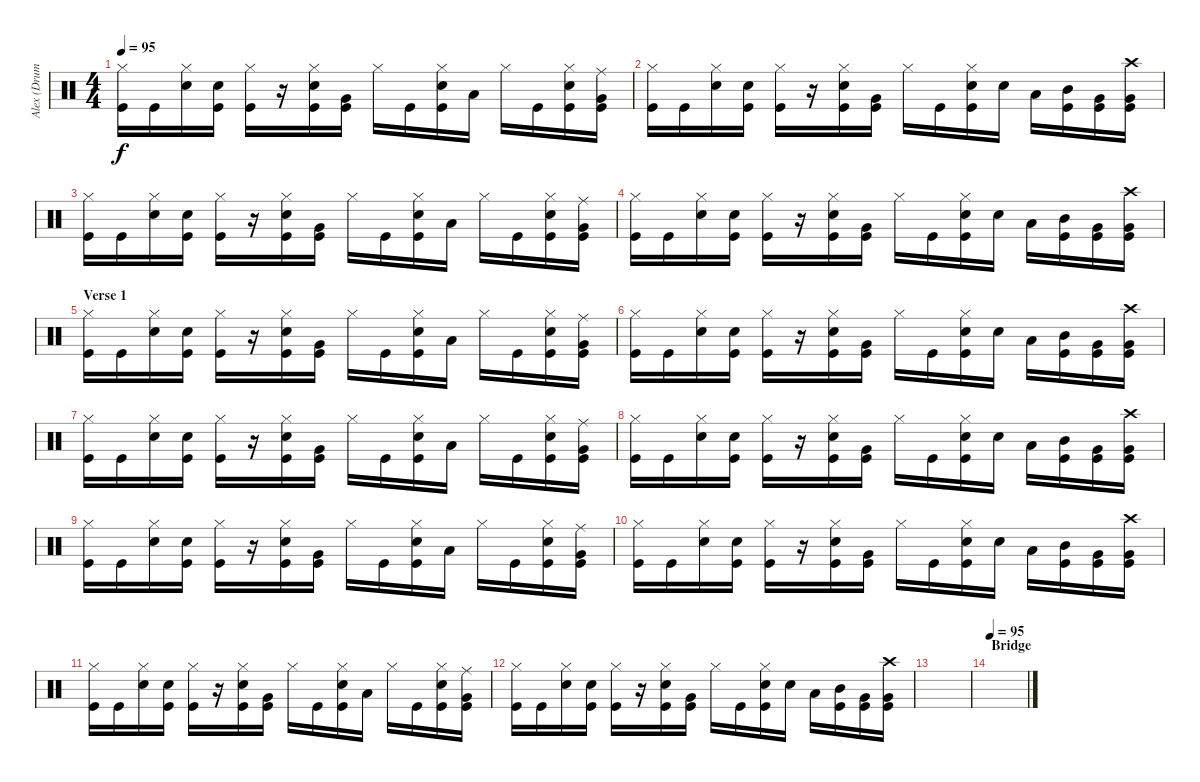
\track ("Alex (Drums)" "Alex (Drum") {instrument percussion}
\staff {score}
\articulation defaults
\ts (4 4)
\tempo 95
\clef neutral
\ks c
("Hi-Hat (closed)" "Kick (hit)").16{dy f} "Kick (hit)".16 ("Hi-Hat (closed)" "Electric Snare (hit)").16 ("Electric Snare (hit)" "Kick (hit)").16 ("Hi-Hat (closed)" "Kick (hit)").16 r.16 ("Hi-Hat (closed)" "Electric Snare (hit)" "Kick (hit)").16 ("Very Low Tom (hit)" "Kick (hit)").16 "Hi-Hat (closed)".16 "Kick (hit)".16 ("Hi-Hat (closed)" "Electric Snare (hit)" "Kick (hit)").16 "Low Tom (hit)".16 "Hi-Hat (closed)".16 "Kick (hit)".16 ("Hi-Hat (closed)" "Electric Snare (hit)" "Kick (hit)").16 ("Ride (middle)" "Very Low Tom (hit)" "Kick (hit)").16 |
("Hi-Hat (closed)" "Kick (hit)").16 "Kick (hit)".16 ("Hi-Hat (closed)" "Electric Snare (hit)").16 ("Electric Snare (hit)" "Kick (hit)").16 ("Hi-Hat (closed)" "Kick (hit)").16 r.16 ("Hi-Hat (closed)" "Electric Snare (hit)" "Kick (hit)").16 ("Very Low Tom (hit)" "Kick (hit)").16 "Hi-Hat (closed)".16 "Kick (hit)".16 ("Hi-Hat (closed)" "Electric Snare (hit)" "Kick (hit)").16 "Electric Snare (hit)".16 "Low Tom (hit)".16 ("Mid Tom (hit)" "Kick (hit)").16 ("Very Low Tom (hit)" "Kick (hit)").16 ("Crash high (hit)" "Very Low Tom (hit)" "Kick (hit)").16 |
("Hi-Hat (closed)" "Kick (hit)").16 "Kick (hit)".16 ("Hi-Hat (closed)" "Electric Snare (hit)").16 ("Electric Snare (hit)" "Kick (hit)").16 ("Hi-Hat (closed)" "Kick (hit)").16 r.16 ("Hi-Hat (closed)" "Electric Snare (hit)" "Kick (hit)").16 ("Very Low Tom (hit)" "Kick (hit)").16 "Hi-Hat (closed)".16 "Kick (hit)".16 ("Hi-Hat (closed)" "Electric Snare (hit)" "Kick (hit)").16 "Low Tom (hit)".16 "Hi-Hat (closed)".16 "Kick (hit)".16 ("Hi-Hat (closed)" "Electric Snare (hit)" "Kick (hit)").16 ("Ride (middle)" "Very Low Tom (hit)" "Kick (hit)").16 |
("Hi-Hat (closed)" "Kick (hit)").16 "Kick (hit)".16 ("Hi-Hat (closed)" "Electric Snare (hit)").16 ("Electric Snare (hit)" "Kick (hit)").16 ("Hi-Hat (closed)" "Kick (hit)").16 r.16 ("Hi-Hat (closed)" "Electric Snare (hit)" "Kick (hit)").16 ("Very Low Tom (hit)" "Kick (hit)").16 "Hi-Hat (closed)".16 "Kick (hit)".16 ("Hi-Hat (closed)" "Electric Snare (hit)" "Kick (hit)").16 "Electric Snare (hit)".16 "Low Tom (hit)".16 ("Mid Tom (hit)" "Kick (hit)").16 ("Very Low Tom (hit)" "Kick (hit)").16 ("Crash high (hit)" "Very Low Tom (hit)" "Kick (hit)").16 |
\section ("" "Verse 1")
("Hi-Hat (closed)" "Kick (hit)").16 "Kick (hit)".16 ("Hi-Hat (closed)" "Electric Snare (hit)").16 ("Electric Snare (hit)" "Kick (hit)").16 ("Hi-Hat (closed)" "Kick (hit)").16 r.16 ("Hi-Hat (closed)" "Electric Snare (hit)" "Kick (hit)").16 ("Very Low Tom (hit)" "Kick (hit)").16 "Hi-Hat (closed)".16 "Kick (hit)".16 ("Hi-Hat (closed)" "Electric Snare (hit)" "Kick (hit)").16 "Low Tom (hit)".16 "Hi-Hat (closed)".16 "Kick (hit)".16 ("Hi-Hat (closed)" "Electric Snare (hit)" "Kick (hit)").16 ("Ride (middle)" "Very Low Tom (hit)" "Kick (hit)").16 |
("Hi-Hat (closed)" "Kick (hit)").16 "Kick (hit)".16 ("Hi-Hat (closed)" "Electric Snare (hit)").16 ("Electric Snare (hit)" "Kick (hit)").16 ("Hi-Hat (closed)" "Kick (hit)").16 r.16 ("Hi-Hat (closed)" "Electric Snare (hit)" "Kick (hit)").16 ("Very Low Tom (hit)" "Kick (hit)").16 "Hi-Hat (closed)".16 "Kick (hit)".16 ("Hi-Hat (closed)" "Electric Snare (hit)" "Kick (hit)").16 "Electric Snare (hit)".16 "Low Tom (hit)".16 ("Mid Tom (hit)" "Kick (hit)").16 ("Very Low Tom (hit)" "Kick (hit)").16 ("Crash high (hit)" "Very Low Tom (hit)" "Kick (hit)").16 |
("Hi-Hat (closed)" "Kick (hit)").16 "Kick (hit)".16 ("Hi-Hat (closed)" "Electric Snare (hit)").16 ("Electric Snare (hit)" "Kick (hit)").16 ("Hi-Hat (closed)" "Kick (hit)").16 r.16 ("Hi-Hat (closed)" "Electric Snare (hit)" "Kick (hit)").16 ("Very Low Tom (hit)" "Kick (hit)").16 "Hi-Hat (closed)".16 "Kick (hit)".16 ("Hi-Hat (closed)" "Electric Snare (hit)" "Kick (hit)").16 "Low Tom (hit)".16 "Hi-Hat (closed)".16 "Kick (hit)".16 ("Hi-Hat (closed)" "Electric Snare (hit)" "Kick (hit)").16 ("Ride (middle)" "Very Low Tom (hit)" "Kick (hit)").16 |
("Hi-Hat (closed)" "Kick (hit)").16 "Kick (hit)".16 ("Hi-Hat (closed)" "Electric Snare (hit)").16 ("Electric Snare (hit)" "Kick (hit)").16 ("Hi-Hat (closed)" "Kick (hit)").16 r.16 ("Hi-Hat (closed)" "Electric Snare (hit)" "Kick (hit)").16 ("Very Low Tom (hit)" "Kick (hit)").16 "Hi-Hat (closed)".16 "Kick (hit)".16 ("Hi-Hat (closed)" "Electric Snare (hit)" "Kick (hit)").16 "Electric Snare (hit)".16 "Low Tom (hit)".16 ("Mid Tom (hit)" "Kick (hit)").16 ("Very Low Tom (hit)" "Kick (hit)").16 ("Crash high (hit)" "Very Low Tom (hit)" "Kick (hit)").16 |
("Hi-Hat (closed)" "Kick (hit)").16 "Kick (hit)".16 ("Hi-Hat (closed)" "Electric Snare (hit)").16 ("Electric Snare (hit)" "Kick (hit)").16 ("Hi-Hat (closed)" "Kick (hit)").16 r.16 ("Hi-Hat (closed)" "Electric Snare (hit)" "Kick (hit)").16 ("Very Low Tom (hit)" "Kick (hit)").16 "Hi-Hat (closed)".16 "Kick (hit)".16 ("Hi-Hat (closed)" "Electric Snare (hit)" "Kick (hit)").16 "Low Tom (hit)".16 "Hi-Hat (closed)".16 "Kick (hit)".16 ("Hi-Hat (closed)" "Electric Snare (hit)" "Kick (hit)").16 ("Ride (middle)" "Very Low Tom (hit)" "Kick (hit)").16 |
("Hi-Hat (closed)" "Kick (hit)").16 "Kick (hit)".16 ("Hi-Hat (closed)" "Electric Snare (hit)").16 ("Electric Snare (hit)" "Kick (hit)").16 ("Hi-Hat (closed)" "Kick (hit)").16 r.16 ("Hi-Hat (closed)" "Electric Snare (hit)" "Kick (hit)").16 ("Very Low Tom (hit)" "Kick (hit)").16 "Hi-Hat (closed)".16 "Kick (hit)".16 ("Hi-Hat (closed)" "Electric Snare (hit)" "Kick (hit)").16 "Electric Snare (hit)".16 "Low Tom (hit)".16 ("Mid Tom (hit)" "Kick (hit)").16 ("Very Low Tom (hit)" "Kick (hit)").16 ("Crash high (hit)" "Very Low Tom (hit)" "Kick (hit)").16 |
("Hi-Hat (closed)" "Kick (hit)").16 "Kick (hit)".16 ("Hi-Hat (closed)" "Electric Snare (hit)").16 ("Electric Snare (hit)" "Kick (hit)").16 ("Hi-Hat (closed)" "Kick (hit)").16 r.16 ("Hi-Hat (closed)" "Electric Snare (hit)" "Kick (hit)").16 ("Very Low Tom (hit)" "Kick (hit)").16 "Hi-Hat (closed)".16 "Kick (hit)".16 ("Hi-Hat (closed)" "Electric Snare (hit)" "Kick (hit)").16 "Low Tom (hit)".16 "Hi-Hat (closed)".16 "Kick (hit)".16 ("Hi-Hat (closed)" "Electric Snare (hit)" "Kick (hit)").16 ("Ride (middle)" "Very Low Tom (hit)" "Kick (hit)").16 |
("Hi-Hat (closed)" "Kick (hit)").16 "Kick (hit)".16 ("Hi-Hat (closed)" "Electric Snare (hit)").16 ("Electric Snare (hit)" "Kick (hit)").16 ("Hi-Hat (closed)" "Kick (hit)").16 r.16 ("Hi-Hat (closed)" "Electric Snare (hit)" "Kick (hit)").16 ("Very Low Tom (hit)" "Kick (hit)").16 "Hi-Hat (closed)".16 "Kick (hit)".16 ("Hi-Hat (closed)" "Electric Snare (hit)" "Kick (hit)").16 "Electric Snare (hit)".16 "Low Tom (hit)".16 ("Mid Tom (hit)" "Kick (hit)").16 ("Very Low Tom (hit)" "Kick (hit)").16 ("Crash high (hit)" "Very Low Tom (hit)" "Kick (hit)").16 |
|
\section ("" "Bridge")
\tempo 95
